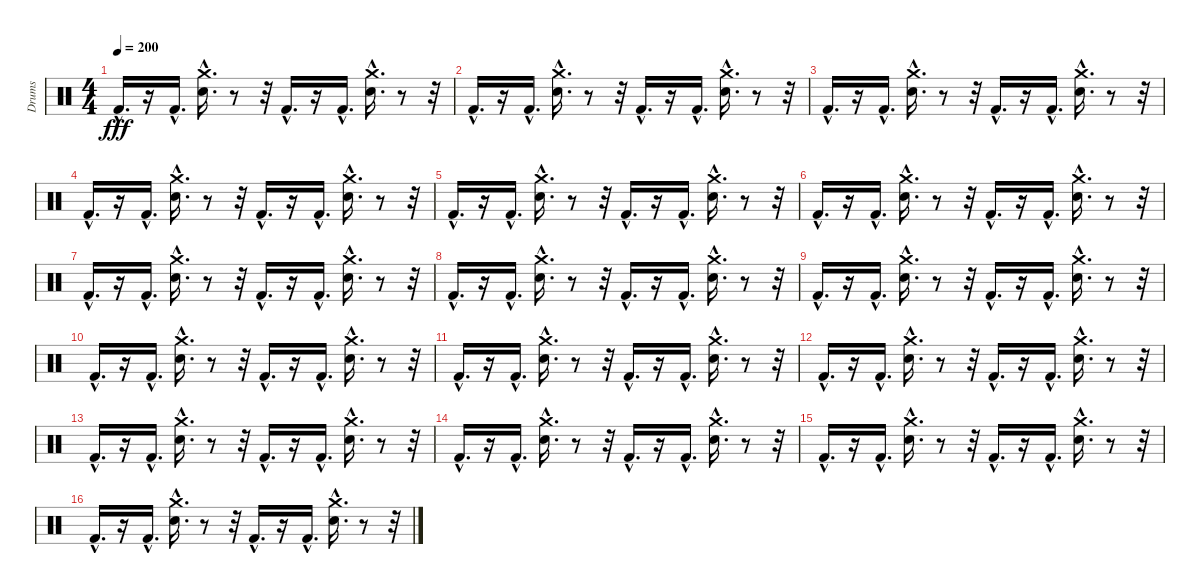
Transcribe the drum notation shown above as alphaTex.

\track ("Drums" "Drums") {instrument percussion}
\staff {score}
\articulation defaults
\ts (4 4)
\tempo 200
\clef neutral
\ks c "Kick (hit) 2"{hac}.16{d dy fff}
r.16 "Kick (hit) 2"{hac}.16{d} ("Crash medium (hit)"{hac} "Electric Snare (hit)"{hac}).16{d} r.8 r.32 "Kick (hit) 2"{hac}.16{d} r.16 "Kick (hit) 2"{hac}.16{d} ("Crash medium (hit)"{hac} "Electric Snare (hit)"{hac}).16{d} r.8 r.32 |
"Kick (hit) 2"{hac}.16{d} r.16 "Kick (hit) 2"{hac}.16{d} ("Crash medium (hit)"{hac} "Electric Snare (hit)"{hac}).16{d} r.8 r.32 "Kick (hit) 2"{hac}.16{d} r.16 "Kick (hit) 2"{hac}.16{d} ("Crash medium (hit)"{hac} "Electric Snare (hit)"{hac}).16{d} r.8 r.32 |
"Kick (hit) 2"{hac}.16{d} r.16 "Kick (hit) 2"{hac}.16{d} ("Crash medium (hit)"{hac} "Electric Snare (hit)"{hac}).16{d} r.8 r.32 "Kick (hit) 2"{hac}.16{d} r.16 "Kick (hit) 2"{hac}.16{d} ("Crash medium (hit)"{hac} "Electric Snare (hit)"{hac}).16{d} r.8 r.32 |
"Kick (hit) 2"{hac}.16{d} r.16 "Kick (hit) 2"{hac}.16{d} ("Crash medium (hit)"{hac} "Electric Snare (hit)"{hac}).16{d} r.8 r.32 "Kick (hit) 2"{hac}.16{d} r.16 "Kick (hit) 2"{hac}.16{d} ("Crash medium (hit)"{hac} "Electric Snare (hit)"{hac}).16{d} r.8 r.32 |
"Kick (hit) 2"{hac}.16{d} r.16 "Kick (hit) 2"{hac}.16{d} ("Crash medium (hit)"{hac} "Electric Snare (hit)"{hac}).16{d} r.8 r.32 "Kick (hit) 2"{hac}.16{d} r.16 "Kick (hit) 2"{hac}.16{d} ("Crash medium (hit)"{hac} "Electric Snare (hit)"{hac}).16{d} r.8 r.32 |
"Kick (hit) 2"{hac}.16{d} r.16 "Kick (hit) 2"{hac}.16{d} ("Crash medium (hit)"{hac} "Electric Snare (hit)"{hac}).16{d} r.8 r.32 "Kick (hit) 2"{hac}.16{d} r.16 "Kick (hit) 2"{hac}.16{d} ("Crash medium (hit)"{hac} "Electric Snare (hit)"{hac}).16{d} r.8 r.32 |
"Kick (hit) 2"{hac}.16{d} r.16 "Kick (hit) 2"{hac}.16{d} ("Crash medium (hit)"{hac} "Electric Snare (hit)"{hac}).16{d} r.8 r.32 "Kick (hit) 2"{hac}.16{d} r.16 "Kick (hit) 2"{hac}.16{d} ("Crash medium (hit)"{hac} "Electric Snare (hit)"{hac}).16{d} r.8 r.32 |
"Kick (hit) 2"{hac}.16{d} r.16 "Kick (hit) 2"{hac}.16{d} ("Crash medium (hit)"{hac} "Electric Snare (hit)"{hac}).16{d} r.8 r.32 "Kick (hit) 2"{hac}.16{d} r.16 "Kick (hit) 2"{hac}.16{d} ("Crash medium (hit)"{hac} "Electric Snare (hit)"{hac}).16{d} r.8 r.32 |
"Kick (hit) 2"{hac}.16{d} r.16 "Kick (hit) 2"{hac}.16{d} ("Crash medium (hit)"{hac} "Electric Snare (hit)"{hac}).16{d} r.8 r.32 "Kick (hit) 2"{hac}.16{d} r.16 "Kick (hit) 2"{hac}.16{d} ("Crash medium (hit)"{hac} "Electric Snare (hit)"{hac}).16{d} r.8 r.32 |
"Kick (hit) 2"{hac}.16{d} r.16 "Kick (hit) 2"{hac}.16{d} ("Crash medium (hit)"{hac} "Electric Snare (hit)"{hac}).16{d} r.8 r.32 "Kick (hit) 2"{hac}.16{d} r.16 "Kick (hit) 2"{hac}.16{d} ("Crash medium (hit)"{hac} "Electric Snare (hit)"{hac}).16{d} r.8 r.32 |
"Kick (hit) 2"{hac}.16{d} r.16 "Kick (hit) 2"{hac}.16{d} ("Crash medium (hit)"{hac} "Electric Snare (hit)"{hac}).16{d} r.8 r.32 "Kick (hit) 2"{hac}.16{d} r.16 "Kick (hit) 2"{hac}.16{d} ("Crash medium (hit)"{hac} "Electric Snare (hit)"{hac}).16{d} r.8 r.32 |
"Kick (hit) 2"{hac}.16{d} r.16 "Kick (hit) 2"{hac}.16{d} ("Crash medium (hit)"{hac} "Electric Snare (hit)"{hac}).16{d} r.8 r.32 "Kick (hit) 2"{hac}.16{d} r.16 "Kick (hit) 2"{hac}.16{d} ("Crash medium (hit)"{hac} "Electric Snare (hit)"{hac}).16{d} r.8 r.32 |
"Kick (hit) 2"{hac}.16{d} r.16 "Kick (hit) 2"{hac}.16{d} ("Crash medium (hit)"{hac} "Electric Snare (hit)"{hac}).16{d} r.8 r.32 "Kick (hit) 2"{hac}.16{d} r.16 "Kick (hit) 2"{hac}.16{d} ("Crash medium (hit)"{hac} "Electric Snare (hit)"{hac}).16{d} r.8 r.32 |
"Kick (hit) 2"{hac}.16{d} r.16 "Kick (hit) 2"{hac}.16{d} ("Crash medium (hit)"{hac} "Electric Snare (hit)"{hac}).16{d} r.8 r.32 "Kick (hit) 2"{hac}.16{d} r.16 "Kick (hit) 2"{hac}.16{d} ("Crash medium (hit)"{hac} "Electric Snare (hit)"{hac}).16{d} r.8 r.32 |
"Kick (hit) 2"{hac}.16{d} r.16 "Kick (hit) 2"{hac}.16{d} ("Crash medium (hit)"{hac} "Electric Snare (hit)"{hac}).16{d} r.8 r.32 "Kick (hit) 2"{hac}.16{d} r.16 "Kick (hit) 2"{hac}.16{d} ("Crash medium (hit)"{hac} "Electric Snare (hit)"{hac}).16{d} r.8 r.32 |
"Kick (hit) 2"{hac}.16{d} r.16 "Kick (hit) 2"{hac}.16{d} ("Crash medium (hit)"{hac} "Electric Snare (hit)"{hac}).16{d} r.8 r.32 "Kick (hit) 2"{hac}.16{d} r.16 "Kick (hit) 2"{hac}.16{d} ("Crash medium (hit)"{hac} "Electric Snare (hit)"{hac}).16{d} r.8 r.32
